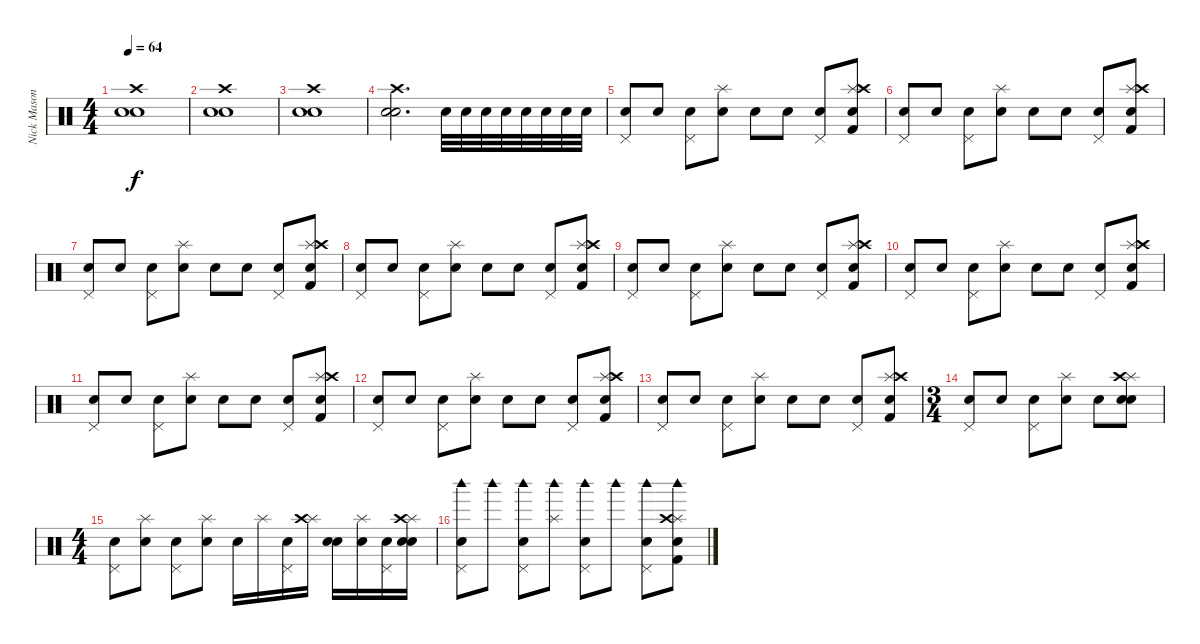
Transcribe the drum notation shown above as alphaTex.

\track ("Nick Mason" "Nick Mason") {instrument percussion}
\staff {score}
\articulation defaults
\ts (4 4)
\tempo 64
\clef neutral
\ks c
("Electric Snare (hit)" "Crash high (hit)" "Snare (hit) 2").1{dy f} |
("Electric Snare (hit)" "Crash high (hit)" "Snare (hit) 2").1 |
("Electric Snare (hit)" "Crash high (hit)" "Snare (hit) 2").1 |
("Electric Snare (hit)" "Crash high (hit)" "Snare (hit) 2").2{d} "Snare (hit) 2".32 "Snare (hit) 2".32 "Snare (hit) 2".32 "Snare (hit) 2".32 "Electric Snare (hit)".32 "Electric Snare (hit)".32 "Electric Snare (hit)".32 "Electric Snare (hit)".32 |
("Pedal Hi-Hat (hit)" "Snare (hit) 2").8 "Electric Snare (hit)".8 ("Pedal Hi-Hat (hit)" "Snare (hit) 2").8 ("Splash (hit)" "Electric Snare (hit)").8 "Snare (hit) 2".8 "Electric Snare (hit)".8 ("Pedal Hi-Hat (hit)" "Snare (hit) 2").8 ("Splash (hit)" "Crash high (hit)" "Electric Snare (hit)" "Kick (hit) 2").8 |
("Pedal Hi-Hat (hit)" "Snare (hit) 2").8 "Electric Snare (hit)".8 ("Pedal Hi-Hat (hit)" "Snare (hit) 2").8 ("Splash (hit)" "Electric Snare (hit)").8 "Snare (hit) 2".8 "Electric Snare (hit)".8 ("Pedal Hi-Hat (hit)" "Snare (hit) 2").8 ("Splash (hit)" "Crash high (hit)" "Electric Snare (hit)" "Kick (hit) 2").8 |
("Pedal Hi-Hat (hit)" "Snare (hit) 2").8 "Electric Snare (hit)".8 ("Pedal Hi-Hat (hit)" "Snare (hit) 2").8 ("Splash (hit)" "Electric Snare (hit)").8 "Snare (hit) 2".8 "Electric Snare (hit)".8 ("Pedal Hi-Hat (hit)" "Snare (hit) 2").8 ("Splash (hit)" "Crash high (hit)" "Electric Snare (hit)" "Kick (hit) 2").8 |
("Pedal Hi-Hat (hit)" "Snare (hit) 2").8 "Electric Snare (hit)".8 ("Pedal Hi-Hat (hit)" "Snare (hit) 2").8 ("Splash (hit)" "Electric Snare (hit)").8 "Snare (hit) 2".8 "Electric Snare (hit)".8 ("Pedal Hi-Hat (hit)" "Snare (hit) 2").8 ("Splash (hit)" "Crash high (hit)" "Electric Snare (hit)" "Kick (hit) 2").8 |
("Pedal Hi-Hat (hit)" "Snare (hit) 2").8 "Electric Snare (hit)".8 ("Pedal Hi-Hat (hit)" "Snare (hit) 2").8 ("Splash (hit)" "Electric Snare (hit)").8 "Snare (hit) 2".8 "Electric Snare (hit)".8 ("Pedal Hi-Hat (hit)" "Snare (hit) 2").8 ("Splash (hit)" "Crash high (hit)" "Electric Snare (hit)" "Kick (hit) 2").8 |
("Pedal Hi-Hat (hit)" "Snare (hit) 2").8 "Electric Snare (hit)".8 ("Pedal Hi-Hat (hit)" "Snare (hit) 2").8 ("Splash (hit)" "Electric Snare (hit)").8 "Snare (hit) 2".8 "Electric Snare (hit)".8 ("Pedal Hi-Hat (hit)" "Snare (hit) 2").8 ("Splash (hit)" "Crash high (hit)" "Electric Snare (hit)" "Kick (hit) 2").8 |
("Pedal Hi-Hat (hit)" "Snare (hit) 2").8 "Electric Snare (hit)".8 ("Pedal Hi-Hat (hit)" "Snare (hit) 2").8 ("Splash (hit)" "Electric Snare (hit)").8 "Snare (hit) 2".8 "Electric Snare (hit)".8 ("Pedal Hi-Hat (hit)" "Snare (hit) 2").8 ("Splash (hit)" "Crash high (hit)" "Electric Snare (hit)" "Kick (hit) 2").8 |
("Pedal Hi-Hat (hit)" "Snare (hit) 2").8 "Electric Snare (hit)".8 ("Pedal Hi-Hat (hit)" "Snare (hit) 2").8 ("Splash (hit)" "Electric Snare (hit)").8 "Snare (hit) 2".8 "Electric Snare (hit)".8 ("Pedal Hi-Hat (hit)" "Snare (hit) 2").8 ("Splash (hit)" "Crash high (hit)" "Electric Snare (hit)" "Kick (hit) 2").8 |
("Pedal Hi-Hat (hit)" "Snare (hit) 2").8 "Electric Snare (hit)".8 ("Pedal Hi-Hat (hit)" "Snare (hit) 2").8 ("Splash (hit)" "Electric Snare (hit)").8 "Snare (hit) 2".8 "Electric Snare (hit)".8 ("Pedal Hi-Hat (hit)" "Snare (hit) 2").8 ("Splash (hit)" "Crash high (hit)" "Electric Snare (hit)" "Kick (hit) 2").8 |
\ts (3 4)
("Pedal Hi-Hat (hit)" "Snare (hit) 2").8 "Electric Snare (hit)".8 ("Pedal Hi-Hat (hit)" "Snare (hit) 2").8 ("Splash (hit)" "Electric Snare (hit)").8 "Snare (hit) 2".8 ("Splash (hit)" "Crash high (hit)" "Electric Snare (hit)" "Hand Clap (hit)").8 |
\ts (4 4)
("Pedal Hi-Hat (hit)" "Snare (hit) 2").8 ("Splash (hit)" "Electric Snare (hit)").8 ("Pedal Hi-Hat (hit)" "Snare (hit) 2").8 ("Splash (hit)" "Electric Snare (hit)").8 "Snare (hit) 2".16 "Splash (hit)".16 ("Pedal Hi-Hat (hit)" "Snare (hit) 2").16 ("Splash (hit)" "Crash high (hit)").16 ("Electric Snare (hit)" "Snare (hit) 2").16 ("Splash (hit)" "Snare (hit) 2").16 ("Pedal Hi-Hat (hit)" "Snare (hit) 2").16 ("Splash (hit)" "Crash high (hit)" "Electric Snare (hit)" "Snare (hit) 2").16 |
("Woodblock high (hit)" "Pedal Hi-Hat (hit)" "Snare (hit) 2").8 "Woodblock high (hit)".8 ("Woodblock high (hit)" "Pedal Hi-Hat (hit)" "Snare (hit) 2").8 ("Woodblock high (hit)" "Splash (hit)").8 ("Woodblock high (hit)" "Pedal Hi-Hat (hit)" "Snare (hit) 2").8 "Woodblock high (hit)".8 ("Woodblock high (hit)" "Pedal Hi-Hat (hit)" "Snare (hit) 2").8 ("Woodblock high (hit)" "Splash (hit)" "Crash high (hit)" "Electric Snare (hit)" "Kick (hit) 2").8
